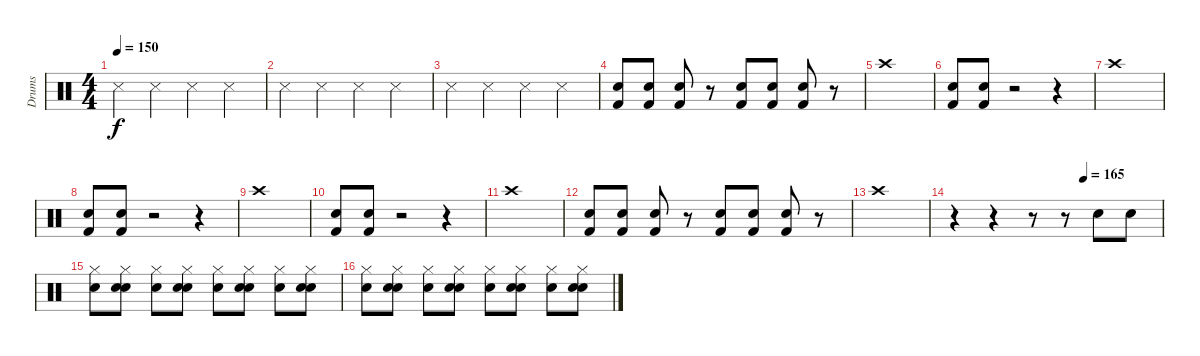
\track ("Drums" "Drums") {instrument percussion}
\staff {score}
\articulation defaults
\ts (4 4)
\tempo 150
\clef neutral
\ks c "Snare (side stick) 3".4{dy f} "Snare (side stick) 3".4 "Snare (side stick) 3".4 "Snare (side stick) 3".4
|
"Snare (side stick) 3".4 "Snare (side stick) 3".4 "Snare (side stick) 3".4 "Snare (side stick) 3".4 |
"Snare (side stick) 3".4 "Snare (side stick) 3".4 "Snare (side stick) 3".4 "Snare (side stick) 3".4 |
("Kick (hit) 2" "Snare (hit) 2").8 ("Kick (hit) 2" "Snare (hit) 2").8 ("Kick (hit) 2" "Snare (hit) 2").8 r.8 ("Kick (hit) 2" "Snare (hit) 2").8 ("Kick (hit) 2" "Snare (hit) 2").8 ("Kick (hit) 2" "Snare (hit) 2").8 r.8 |
"Crash high (hit)".1 |
("Kick (hit) 2" "Snare (hit) 2").8 ("Kick (hit) 2" "Snare (hit) 2").8 r.2 r.4 |
"Crash high (hit)".1 |
("Kick (hit) 2" "Snare (hit) 2").8 ("Kick (hit) 2" "Snare (hit) 2").8 r.2 r.4 |
"Crash high (hit)".1 |
("Kick (hit) 2" "Snare (hit) 2").8 ("Kick (hit) 2" "Snare (hit) 2").8 r.2 r.4 |
"Crash high (hit)".1 |
("Kick (hit) 2" "Snare (hit) 2").8 ("Kick (hit) 2" "Snare (hit) 2").8 ("Kick (hit) 2" "Snare (hit) 2").8 r.8 ("Kick (hit) 2" "Snare (hit) 2").8 ("Kick (hit) 2" "Snare (hit) 2").8 ("Kick (hit) 2" "Snare (hit) 2").8 r.8 |
"Crash high (hit)".1 |
\tempo (165 0.625)
r.4 r.4 r.8 r.8 "Electric Snare (hit)".8 "Snare (hit) 2".8 |
("Hi-Hat (closed)" "Electric Snare (hit)").8 ("Snare (hit) 2" "Electric Snare (hit)" "Hi-Hat (closed)").8 ("Hi-Hat (closed)" "Electric Snare (hit)").8 ("Snare (hit) 2" "Hi-Hat (closed)" "Electric Snare (hit)").8 ("Hi-Hat (closed)" "Electric Snare (hit)").8 ("Snare (hit) 2" "Hi-Hat (closed)" "Electric Snare (hit)").8 ("Hi-Hat (closed)" "Electric Snare (hit)").8 ("Snare (hit) 2" "Hi-Hat (closed)" "Electric Snare (hit)").8 |
("Hi-Hat (closed)" "Electric Snare (hit)").8 ("Snare (hit) 2" "Electric Snare (hit)" "Hi-Hat (closed)").8 ("Hi-Hat (closed)" "Electric Snare (hit)").8 ("Snare (hit) 2" "Hi-Hat (closed)" "Electric Snare (hit)").8 ("Hi-Hat (closed)" "Electric Snare (hit)").8 ("Snare (hit) 2" "Hi-Hat (closed)" "Electric Snare (hit)").8 ("Hi-Hat (closed)" "Electric Snare (hit)").8 ("Snare (hit) 2" "Hi-Hat (closed)" "Electric Snare (hit)").8
